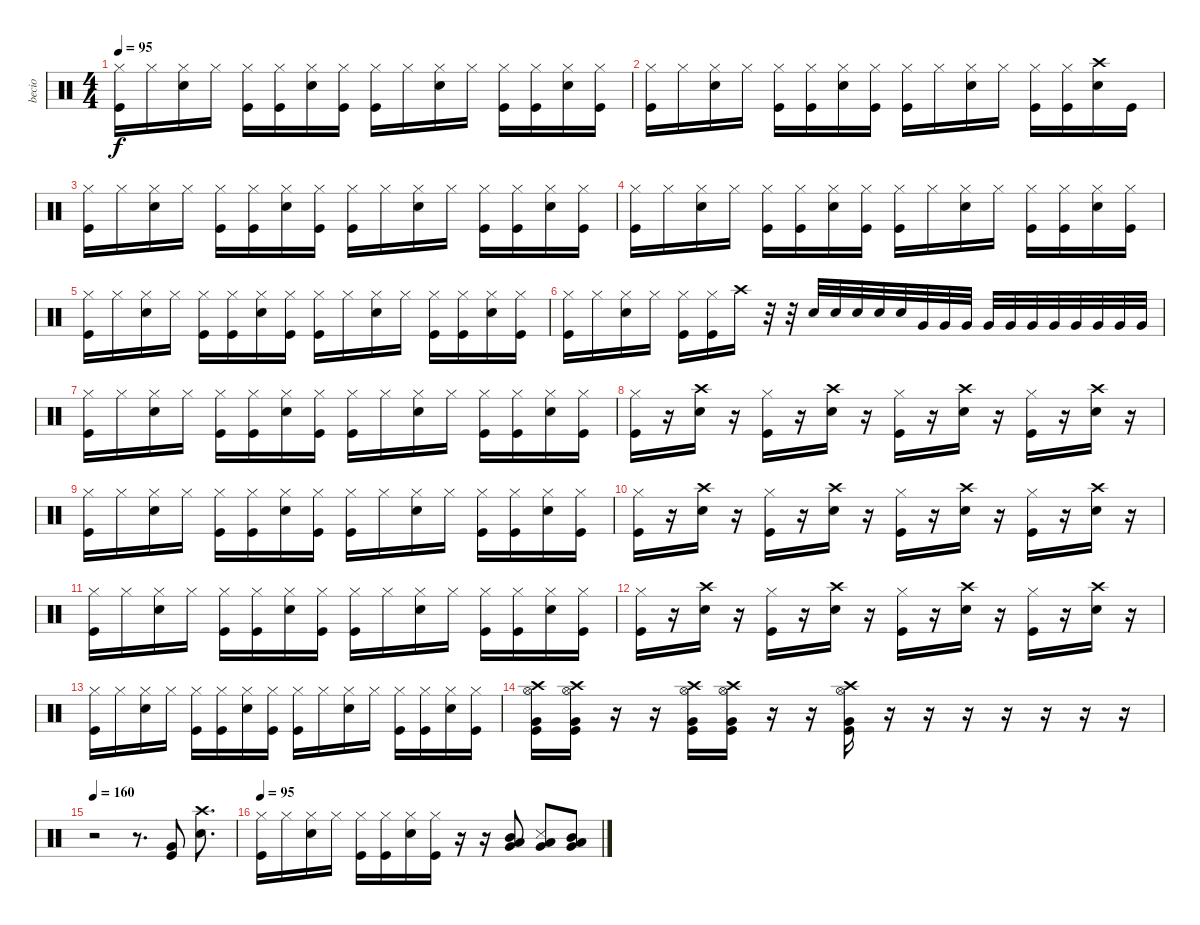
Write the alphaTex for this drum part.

\track ("becio" "becio") {instrument percussion}
\staff {score}
\articulation defaults
\ts (4 4)
\tempo 95
\clef neutral
\ks c
("Kick (hit)" "Hi-Hat (closed)").16{dy f} "Hi-Hat (closed)".16 ("Electric Snare (hit)" "Hi-Hat (closed)").16 "Hi-Hat (closed)".16 ("Kick (hit)" "Hi-Hat (closed)").16 ("Kick (hit)" "Hi-Hat (closed)").16 ("Electric Snare (hit)" "Hi-Hat (closed)").16 ("Kick (hit)" "Hi-Hat (closed)").16 ("Kick (hit)" "Hi-Hat (closed)").16 "Hi-Hat (closed)".16 ("Electric Snare (hit)" "Hi-Hat (closed)").16 "Hi-Hat (closed)".16 ("Kick (hit)" "Hi-Hat (closed)").16 ("Kick (hit)" "Hi-Hat (closed)").16 ("Electric Snare (hit)" "Hi-Hat (closed)").16 ("Kick (hit)" "Hi-Hat (closed)").16 |
("Kick (hit)" "Hi-Hat (closed)").16 "Hi-Hat (closed)".16 ("Electric Snare (hit)" "Hi-Hat (closed)").16 "Hi-Hat (closed)".16 ("Kick (hit)" "Hi-Hat (closed)").16 ("Kick (hit)" "Hi-Hat (closed)").16 ("Electric Snare (hit)" "Hi-Hat (closed)").16 ("Kick (hit)" "Hi-Hat (closed)").16 ("Kick (hit)" "Hi-Hat (closed)").16 "Hi-Hat (closed)".16 ("Electric Snare (hit)" "Hi-Hat (closed)").16 "Hi-Hat (closed)".16 ("Kick (hit)" "Hi-Hat (closed)").16 ("Kick (hit)" "Hi-Hat (closed)").16 ("Electric Snare (hit)" "Crash high (hit)").16 "Kick (hit)".16 |
("Kick (hit)" "Hi-Hat (closed)").16 "Hi-Hat (closed)".16 ("Electric Snare (hit)" "Hi-Hat (closed)").16 "Hi-Hat (closed)".16 ("Kick (hit)" "Hi-Hat (closed)").16 ("Kick (hit)" "Hi-Hat (closed)").16 ("Electric Snare (hit)" "Hi-Hat (closed)").16 ("Kick (hit)" "Hi-Hat (closed)").16 ("Kick (hit)" "Hi-Hat (closed)").16 "Hi-Hat (closed)".16 ("Electric Snare (hit)" "Hi-Hat (closed)").16 "Hi-Hat (closed)".16 ("Kick (hit)" "Hi-Hat (closed)").16 ("Kick (hit)" "Hi-Hat (closed)").16 ("Electric Snare (hit)" "Hi-Hat (closed)").16 ("Kick (hit)" "Hi-Hat (closed)").16 |
("Kick (hit)" "Hi-Hat (closed)").16 "Hi-Hat (closed)".16 ("Electric Snare (hit)" "Hi-Hat (closed)").16 "Hi-Hat (closed)".16 ("Kick (hit)" "Hi-Hat (closed)").16 ("Kick (hit)" "Hi-Hat (closed)").16 ("Electric Snare (hit)" "Hi-Hat (closed)").16 ("Kick (hit)" "Hi-Hat (closed)").16 ("Kick (hit)" "Hi-Hat (closed)").16 "Hi-Hat (closed)".16 ("Electric Snare (hit)" "Hi-Hat (closed)").16 "Hi-Hat (closed)".16 ("Kick (hit)" "Hi-Hat (closed)").16 ("Kick (hit)" "Hi-Hat (closed)").16 ("Electric Snare (hit)" "Hi-Hat (closed)").16 ("Kick (hit)" "Hi-Hat (closed)").16 |
("Kick (hit)" "Hi-Hat (closed)").16 "Hi-Hat (closed)".16 ("Electric Snare (hit)" "Hi-Hat (closed)").16 "Hi-Hat (closed)".16 ("Kick (hit)" "Hi-Hat (closed)").16 ("Kick (hit)" "Hi-Hat (closed)").16 ("Electric Snare (hit)" "Hi-Hat (closed)").16 ("Kick (hit)" "Hi-Hat (closed)").16 ("Kick (hit)" "Hi-Hat (closed)").16 "Hi-Hat (closed)".16 ("Electric Snare (hit)" "Hi-Hat (closed)").16 "Hi-Hat (closed)".16 ("Kick (hit)" "Hi-Hat (closed)").16 ("Kick (hit)" "Hi-Hat (closed)").16 ("Electric Snare (hit)" "Hi-Hat (closed)").16 ("Kick (hit)" "Hi-Hat (closed)").16 |
("Kick (hit)" "Hi-Hat (closed)").16 "Hi-Hat (closed)".16 ("Electric Snare (hit)" "Hi-Hat (closed)").16 "Hi-Hat (closed)".16 ("Kick (hit)" "Hi-Hat (closed)").16 ("Kick (hit)" "Hi-Hat (closed)").16 "Crash high (hit)".16 r.32 r.32 "Electric Snare (hit)".32 "Electric Snare (hit)".32 "Electric Snare (hit)".32 "Electric Snare (hit)".32 "Electric Snare (hit)".32 "Very Low Tom (hit)".32 "Very Low Tom (hit)".32 "Very Low Tom (hit)".32 "Very Low Tom (hit)".32 "Very Low Tom (hit)".32 "Very Low Tom (hit)".32 "Very Low Tom (hit)".32 "Very Low Tom (hit)".32 "Very Low Tom (hit)".32 "Very Low Tom (hit)".32 "Very Low Tom (hit)".32 |
("Kick (hit)" "Hi-Hat (closed)").16 "Hi-Hat (closed)".16 ("Electric Snare (hit)" "Hi-Hat (closed)").16 "Hi-Hat (closed)".16 ("Kick (hit)" "Hi-Hat (closed)").16 ("Kick (hit)" "Hi-Hat (closed)").16 ("Electric Snare (hit)" "Hi-Hat (closed)").16 ("Kick (hit)" "Hi-Hat (closed)").16 ("Kick (hit)" "Hi-Hat (closed)").16 "Hi-Hat (closed)".16 ("Electric Snare (hit)" "Hi-Hat (closed)").16 "Hi-Hat (closed)".16 ("Kick (hit)" "Hi-Hat (closed)").16 ("Kick (hit)" "Hi-Hat (closed)").16 ("Electric Snare (hit)" "Hi-Hat (closed)").16 ("Kick (hit)" "Hi-Hat (closed)").16 |
("Kick (hit)" "Hi-Hat (closed)").16 r.16 ("Electric Snare (hit)" "Crash high (hit)").16 r.16 ("Kick (hit)" "Hi-Hat (closed)").16 r.16 ("Electric Snare (hit)" "Crash high (hit)").16 r.16 ("Kick (hit)" "Hi-Hat (closed)").16 r.16 ("Electric Snare (hit)" "Crash high (hit)").16 r.16 ("Kick (hit)" "Hi-Hat (closed)").16 r.16 ("Electric Snare (hit)" "Crash high (hit)").16 r.16 |
("Kick (hit)" "Hi-Hat (closed)").16 "Hi-Hat (closed)".16 ("Electric Snare (hit)" "Hi-Hat (closed)").16 "Hi-Hat (closed)".16 ("Kick (hit)" "Hi-Hat (closed)").16 ("Kick (hit)" "Hi-Hat (closed)").16 ("Electric Snare (hit)" "Hi-Hat (closed)").16 ("Kick (hit)" "Hi-Hat (closed)").16 ("Kick (hit)" "Hi-Hat (closed)").16 "Hi-Hat (closed)".16 ("Electric Snare (hit)" "Hi-Hat (closed)").16 "Hi-Hat (closed)".16 ("Kick (hit)" "Hi-Hat (closed)").16 ("Kick (hit)" "Hi-Hat (closed)").16 ("Electric Snare (hit)" "Hi-Hat (closed)").16 ("Kick (hit)" "Hi-Hat (closed)").16 |
("Kick (hit)" "Hi-Hat (closed)").16 r.16 ("Electric Snare (hit)" "Crash high (hit)").16 r.16 ("Kick (hit)" "Hi-Hat (closed)").16 r.16 ("Electric Snare (hit)" "Crash high (hit)").16 r.16 ("Kick (hit)" "Hi-Hat (closed)").16 r.16 ("Electric Snare (hit)" "Crash high (hit)").16 r.16 ("Kick (hit)" "Hi-Hat (closed)").16 r.16 ("Electric Snare (hit)" "Crash high (hit)").16 r.16 |
("Kick (hit)" "Hi-Hat (closed)").16 "Hi-Hat (closed)".16 ("Electric Snare (hit)" "Hi-Hat (closed)").16 "Hi-Hat (closed)".16 ("Kick (hit)" "Hi-Hat (closed)").16 ("Kick (hit)" "Hi-Hat (closed)").16 ("Electric Snare (hit)" "Hi-Hat (closed)").16 ("Kick (hit)" "Hi-Hat (closed)").16 ("Kick (hit)" "Hi-Hat (closed)").16 "Hi-Hat (closed)".16 ("Electric Snare (hit)" "Hi-Hat (closed)").16 "Hi-Hat (closed)".16 ("Kick (hit)" "Hi-Hat (closed)").16 ("Kick (hit)" "Hi-Hat (closed)").16 ("Electric Snare (hit)" "Hi-Hat (closed)").16 ("Kick (hit)" "Hi-Hat (closed)").16 |
("Kick (hit)" "Hi-Hat (closed)").16 r.16 ("Electric Snare (hit)" "Crash high (hit)").16 r.16 ("Kick (hit)" "Hi-Hat (closed)").16 r.16 ("Electric Snare (hit)" "Crash high (hit)").16 r.16 ("Kick (hit)" "Hi-Hat (closed)").16 r.16 ("Electric Snare (hit)" "Crash high (hit)").16 r.16 ("Kick (hit)" "Hi-Hat (closed)").16 r.16 ("Electric Snare (hit)" "Crash high (hit)").16 r.16 |
("Kick (hit)" "Hi-Hat (closed)").16 "Hi-Hat (closed)".16 ("Electric Snare (hit)" "Hi-Hat (closed)").16 "Hi-Hat (closed)".16 ("Kick (hit)" "Hi-Hat (closed)").16 ("Kick (hit)" "Hi-Hat (closed)").16 ("Electric Snare (hit)" "Hi-Hat (closed)").16 ("Kick (hit)" "Hi-Hat (closed)").16 ("Kick (hit)" "Hi-Hat (closed)").16 "Hi-Hat (closed)".16 ("Electric Snare (hit)" "Hi-Hat (closed)").16 "Hi-Hat (closed)".16 ("Kick (hit)" "Hi-Hat (closed)").16 ("Kick (hit)" "Hi-Hat (closed)").16 ("Electric Snare (hit)" "Hi-Hat (closed)").16 ("Kick (hit)" "Hi-Hat (closed)").16 |
("Kick (hit)" "Very Low Tom (hit)" "Hi-Hat (open)" "Crash high (hit)").16 ("Kick (hit)" "Very Low Tom (hit)" "Hi-Hat (open)" "Crash high (hit)").16 r.16 r.16 ("Kick (hit)" "Very Low Tom (hit)" "Hi-Hat (open)" "Crash high (hit)").16 ("Kick (hit)" "Very Low Tom (hit)" "Hi-Hat (open)" "Crash high (hit)").16 r.16 r.16 ("Kick (hit)" "Very Low Tom (hit)" "Hi-Hat (open)" "Crash high (hit)").16 r.16 r.16 r.16 r.16 r.16 r.16 r.16 |
\tempo 160
r.2 r.8{d} ("Kick (hit)" "Very Low Tom (hit)").8 ("Electric Snare (hit)" "Crash high (hit)").8{d} |
\tempo 95
("Kick (hit)" "Hi-Hat (closed)").16 "Hi-Hat (closed)".16 ("Electric Snare (hit)" "Hi-Hat (closed)").16 "Hi-Hat (closed)".16 ("Kick (hit)" "Hi-Hat (closed)").16 ("Kick (hit)" "Hi-Hat (closed)").16 ("Electric Snare (hit)" "Hi-Hat (closed)").16 ("Kick (hit)" "Hi-Hat (closed)").16 r.16 r.16 ("Very Low Tom (hit)" "Low Tom (hit)" "Mid Tom (hit)").8 ("Very Low Tom (hit)" "Low Tom (hit)" "Snare (side stick) 3").8 ("Very Low Tom (hit)" "Low Tom (hit)" "Mid Tom (hit)").8
